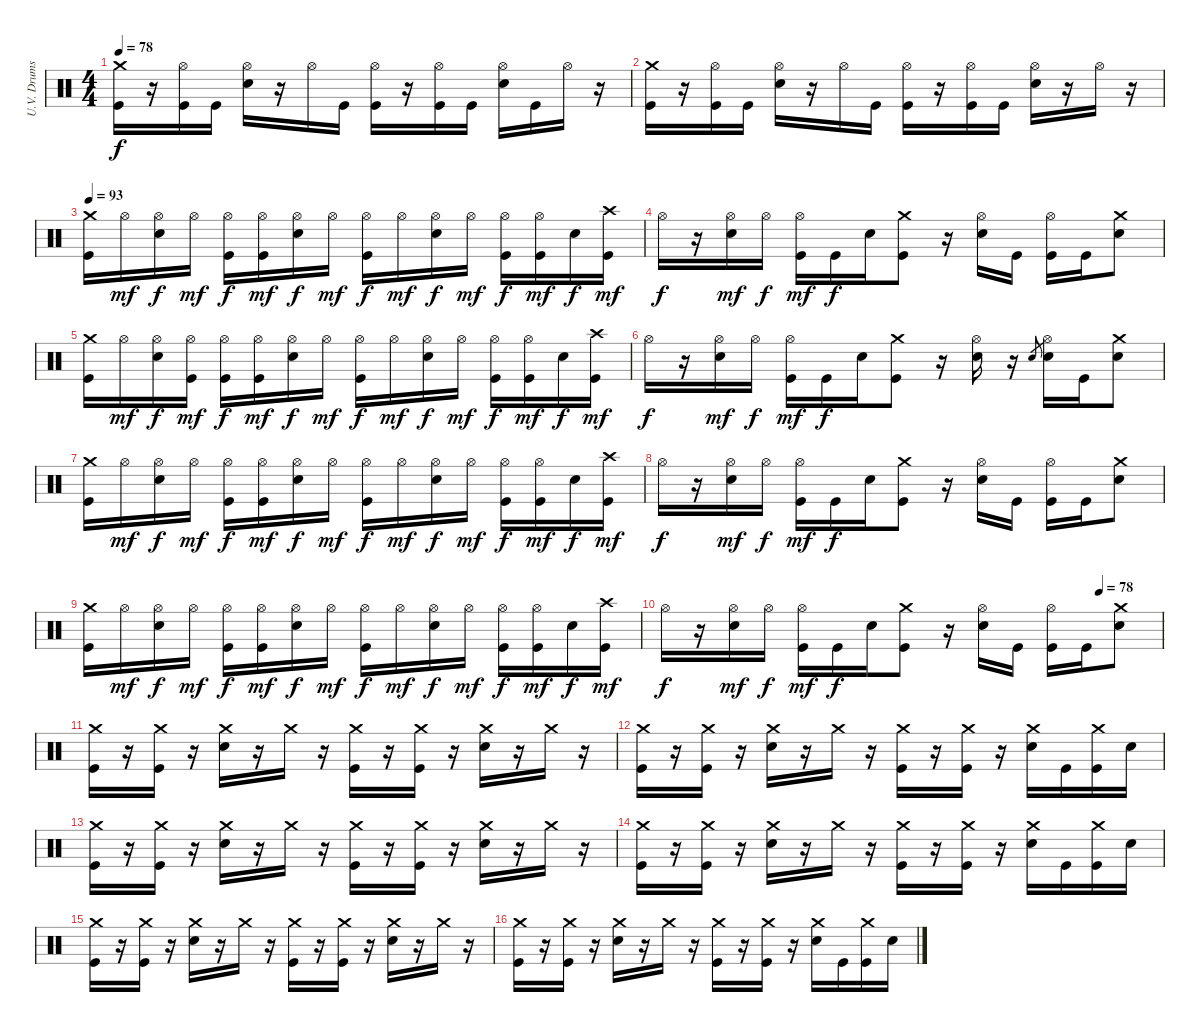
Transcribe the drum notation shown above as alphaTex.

\track ("U.V. Drums" "U.V. Drums") {instrument percussion}
\staff {score}
\articulation defaults
\ts (4 4)
\tempo 78
\clef neutral
\ks c
("Crash medium (hit)" "Kick (hit)").16{dy f} r.16 ("Hi-Hat (open)" "Kick (hit)").16 "Kick (hit)".16 ("Hi-Hat (open)" "Electric Snare (hit)").16 r.16 "Hi-Hat (open)".16 "Kick (hit)".16 ("Hi-Hat (open)" "Kick (hit)").16 r.16 ("Hi-Hat (open)" "Kick (hit)").16 "Kick (hit)".16 ("Hi-Hat (open)" "Electric Snare (hit)").16 "Kick (hit)".16 "Hi-Hat (open)".16 r.16 |
("Crash medium (hit)" "Kick (hit)").16 r.16 ("Hi-Hat (open)" "Kick (hit)").16 "Kick (hit)".16 ("Hi-Hat (open)" "Electric Snare (hit)").16 r.16 "Hi-Hat (open)".16 "Kick (hit)".16 ("Hi-Hat (open)" "Kick (hit)").16 r.16 ("Hi-Hat (open)" "Kick (hit)").16 "Kick (hit)".16 ("Hi-Hat (open)" "Electric Snare (hit)").16 r.16 "Hi-Hat (open)".16 r.16 |
\tempo 93
("Crash medium (hit)" "Kick (hit)").16 "Hi-Hat (open)".16{dy mf} ("Hi-Hat (open)" "Electric Snare (hit)").16{dy f} "Hi-Hat (open)".16{dy mf} ("Hi-Hat (open)" "Kick (hit)").16{dy f} ("Hi-Hat (open)" "Kick (hit)").16{dy mf} ("Hi-Hat (open)" "Electric Snare (hit)").16{dy f} "Hi-Hat (open)".16{dy mf} ("Hi-Hat (open)" "Kick (hit)").16{dy f} "Hi-Hat (open)".16{dy mf} ("Hi-Hat (open)" "Electric Snare (hit)").16{dy f} "Hi-Hat (open)".16{dy mf} ("Hi-Hat (open)" "Kick (hit)").16{dy f} ("Hi-Hat (open)" "Kick (hit)").16{dy mf} "Electric Snare (hit)".16{dy f} ("Crash high (hit)" "Kick (hit)").16{dy mf} |
"Hi-Hat (open)".16{dy f} r.16 ("Hi-Hat (open)" "Electric Snare (hit)").16{dy mf} "Hi-Hat (open)".16{dy f} ("Hi-Hat (open)" "Kick (hit)").16{dy mf} "Kick (hit)".16{dy f} "Electric Snare (hit)".16 ("Crash medium (hit)" "Kick (hit)").8 r.16 ("Hi-Hat (open)" "Electric Snare (hit)").16 "Kick (hit)".16 ("Hi-Hat (open)" "Kick (hit)").16 "Kick (hit)".16 ("Crash medium (hit)" "Electric Snare (hit)").8 |
("Crash medium (hit)" "Kick (hit)").16 "Hi-Hat (open)".16{dy mf} ("Hi-Hat (open)" "Electric Snare (hit)").16{dy f} ("Hi-Hat (open)" "Kick (hit)").16{dy mf} ("Hi-Hat (open)" "Kick (hit)").16{dy f} ("Hi-Hat (open)" "Kick (hit)").16{dy mf} ("Hi-Hat (open)" "Electric Snare (hit)").16{dy f} "Hi-Hat (open)".16{dy mf} ("Hi-Hat (open)" "Kick (hit)").16{dy f} "Hi-Hat (open)".16{dy mf} ("Hi-Hat (open)" "Electric Snare (hit)").16{dy f} "Hi-Hat (open)".16{dy mf} ("Hi-Hat (open)" "Kick (hit)").16{dy f} ("Hi-Hat (open)" "Kick (hit)").16{dy mf} "Electric Snare (hit)".16{dy f} ("Crash high (hit)" "Kick (hit)").16{dy mf} |
"Hi-Hat (open)".16{dy f} r.16 ("Hi-Hat (open)" "Electric Snare (hit)").16{dy mf} "Hi-Hat (open)".16{dy f} ("Hi-Hat (open)" "Kick (hit)").16{dy mf} "Kick (hit)".16{dy f} "Electric Snare (hit)".16 ("Crash medium (hit)" "Kick (hit)").8 r.16 ("Hi-Hat (open)" "Electric Snare (hit)").16 r.16 "Electric Snare (hit)".8{gr} ("Hi-Hat (open)" "Electric Snare (hit)").16 "Kick (hit)".16 ("Crash medium (hit)" "Electric Snare (hit)").8 |
("Crash medium (hit)" "Kick (hit)").16 "Hi-Hat (open)".16{dy mf} ("Hi-Hat (open)" "Electric Snare (hit)").16{dy f} "Hi-Hat (open)".16{dy mf} ("Hi-Hat (open)" "Kick (hit)").16{dy f} ("Hi-Hat (open)" "Kick (hit)").16{dy mf} ("Hi-Hat (open)" "Electric Snare (hit)").16{dy f} "Hi-Hat (open)".16{dy mf} ("Hi-Hat (open)" "Kick (hit)").16{dy f} "Hi-Hat (open)".16{dy mf} ("Hi-Hat (open)" "Electric Snare (hit)").16{dy f} "Hi-Hat (open)".16{dy mf} ("Hi-Hat (open)" "Kick (hit)").16{dy f} ("Hi-Hat (open)" "Kick (hit)").16{dy mf} "Electric Snare (hit)".16{dy f} ("Crash high (hit)" "Kick (hit)").16{dy mf} |
"Hi-Hat (open)".16{dy f} r.16 ("Hi-Hat (open)" "Electric Snare (hit)").16{dy mf} "Hi-Hat (open)".16{dy f} ("Hi-Hat (open)" "Kick (hit)").16{dy mf} "Kick (hit)".16{dy f} "Electric Snare (hit)".16 ("Crash medium (hit)" "Kick (hit)").8 r.16 ("Hi-Hat (open)" "Electric Snare (hit)").16 "Kick (hit)".16 ("Hi-Hat (open)" "Kick (hit)").16 "Kick (hit)".16 ("Crash medium (hit)" "Electric Snare (hit)").8 |
("Crash medium (hit)" "Kick (hit)").16 "Hi-Hat (open)".16{dy mf} ("Hi-Hat (open)" "Electric Snare (hit)").16{dy f} "Hi-Hat (open)".16{dy mf} ("Hi-Hat (open)" "Kick (hit)").16{dy f} ("Hi-Hat (open)" "Kick (hit)").16{dy mf} ("Hi-Hat (open)" "Electric Snare (hit)").16{dy f} "Hi-Hat (open)".16{dy mf} ("Hi-Hat (open)" "Kick (hit)").16{dy f} "Hi-Hat (open)".16{dy mf} ("Hi-Hat (open)" "Electric Snare (hit)").16{dy f} "Hi-Hat (open)".16{dy mf} ("Hi-Hat (open)" "Kick (hit)").16{dy f} ("Hi-Hat (open)" "Kick (hit)").16{dy mf} "Electric Snare (hit)".16{dy f} ("Crash high (hit)" "Kick (hit)").16{dy mf} |
\tempo (78 0.875)
"Hi-Hat (open)".16{dy f} r.16 ("Hi-Hat (open)" "Electric Snare (hit)").16{dy mf} "Hi-Hat (open)".16{dy f} ("Hi-Hat (open)" "Kick (hit)").16{dy mf} "Kick (hit)".16{dy f} "Electric Snare (hit)".16 ("Crash medium (hit)" "Kick (hit)").8 r.16 ("Hi-Hat (open)" "Electric Snare (hit)").16 "Kick (hit)".16 ("Hi-Hat (open)" "Kick (hit)").16 "Kick (hit)".16 ("Crash medium (hit)" "Electric Snare (hit)").8 |
("Crash medium (hit)" "Kick (hit)").16 r.16 ("Crash medium (hit)" "Kick (hit)").16 r.16 ("Crash medium (hit)" "Electric Snare (hit)").16 r.16 "Crash medium (hit)".16 r.16 ("Crash medium (hit)" "Kick (hit)").16 r.16 ("Crash medium (hit)" "Kick (hit)").16 r.16 ("Crash medium (hit)" "Electric Snare (hit)").16 r.16 "Crash medium (hit)".16 r.16 |
("Crash medium (hit)" "Kick (hit)").16 r.16 ("Crash medium (hit)" "Kick (hit)").16 r.16 ("Crash medium (hit)" "Electric Snare (hit)").16 r.16 "Crash medium (hit)".16 r.16 ("Crash medium (hit)" "Kick (hit)").16 r.16 ("Crash medium (hit)" "Kick (hit)").16 r.16 ("Crash medium (hit)" "Electric Snare (hit)").16 "Kick (hit)".16 ("Crash medium (hit)" "Kick (hit)").16 "Electric Snare (hit)".16 |
("Crash medium (hit)" "Kick (hit)").16 r.16 ("Crash medium (hit)" "Kick (hit)").16 r.16 ("Crash medium (hit)" "Electric Snare (hit)").16 r.16 "Crash medium (hit)".16 r.16 ("Crash medium (hit)" "Kick (hit)").16 r.16 ("Crash medium (hit)" "Kick (hit)").16 r.16 ("Crash medium (hit)" "Electric Snare (hit)").16 r.16 "Crash medium (hit)".16 r.16 |
("Crash medium (hit)" "Kick (hit)").16 r.16 ("Crash medium (hit)" "Kick (hit)").16 r.16 ("Crash medium (hit)" "Electric Snare (hit)").16 r.16 "Crash medium (hit)".16 r.16 ("Crash medium (hit)" "Kick (hit)").16 r.16 ("Crash medium (hit)" "Kick (hit)").16 r.16 ("Crash medium (hit)" "Electric Snare (hit)").16 "Kick (hit)".16 ("Crash medium (hit)" "Kick (hit)").16 "Electric Snare (hit)".16 |
("Crash medium (hit)" "Kick (hit)").16 r.16 ("Crash medium (hit)" "Kick (hit)").16 r.16 ("Crash medium (hit)" "Electric Snare (hit)").16 r.16 "Crash medium (hit)".16 r.16 ("Crash medium (hit)" "Kick (hit)").16 r.16 ("Crash medium (hit)" "Kick (hit)").16 r.16 ("Crash medium (hit)" "Electric Snare (hit)").16 r.16 "Crash medium (hit)".16 r.16 |
("Crash medium (hit)" "Kick (hit)").16 r.16 ("Crash medium (hit)" "Kick (hit)").16 r.16 ("Crash medium (hit)" "Electric Snare (hit)").16 r.16 "Crash medium (hit)".16 r.16 ("Crash medium (hit)" "Kick (hit)").16 r.16 ("Crash medium (hit)" "Kick (hit)").16 r.16 ("Crash medium (hit)" "Electric Snare (hit)").16 "Kick (hit)".16 ("Crash medium (hit)" "Kick (hit)").16 "Electric Snare (hit)".16
